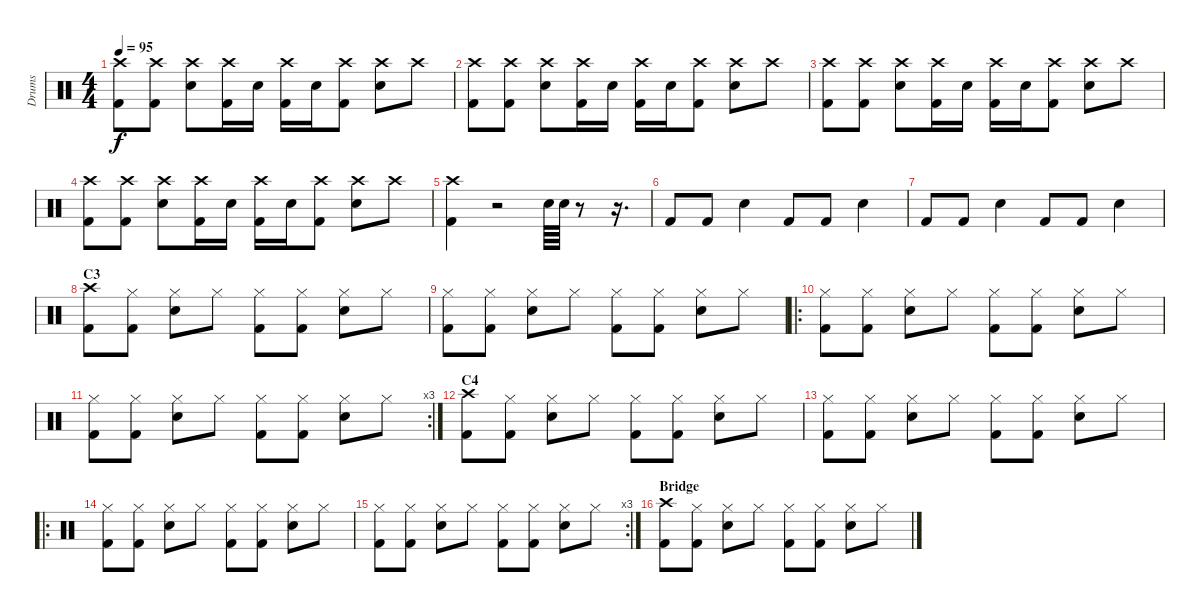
\track ("Drums" "Drums") {instrument percussion}
\staff {score}
\articulation defaults
\ts (4 4)
\tempo 95
\clef neutral
\ks c
("Crash high (hit)" "Kick (hit) 2").8{dy f} ("Crash high (hit)" "Kick (hit) 2").8 ("Crash high (hit)" "Electric Snare (hit)").8 ("Crash high (hit)" "Kick (hit) 2").16 "Electric Snare (hit)".16 ("Crash high (hit)" "Kick (hit) 2").16 "Electric Snare (hit)".16 ("Crash high (hit)" "Kick (hit) 2").8 ("Crash high (hit)" "Electric Snare (hit)").8 "Crash high (hit)".8 |
("Crash high (hit)" "Kick (hit) 2").8 ("Crash high (hit)" "Kick (hit) 2").8 ("Crash high (hit)" "Electric Snare (hit)").8 ("Crash high (hit)" "Kick (hit) 2").16 "Electric Snare (hit)".16 ("Crash high (hit)" "Kick (hit) 2").16 "Electric Snare (hit)".16 ("Crash high (hit)" "Kick (hit) 2").8 ("Crash high (hit)" "Electric Snare (hit)").8 "Crash high (hit)".8 |
("Crash high (hit)" "Kick (hit) 2").8 ("Crash high (hit)" "Kick (hit) 2").8 ("Crash high (hit)" "Electric Snare (hit)").8 ("Crash high (hit)" "Kick (hit) 2").16 "Electric Snare (hit)".16 ("Crash high (hit)" "Kick (hit) 2").16 "Electric Snare (hit)".16 ("Crash high (hit)" "Kick (hit) 2").8 ("Crash high (hit)" "Electric Snare (hit)").8 "Crash high (hit)".8 |
("Crash high (hit)" "Kick (hit) 2").8 ("Crash high (hit)" "Kick (hit) 2").8 ("Crash high (hit)" "Electric Snare (hit)").8 ("Crash high (hit)" "Kick (hit) 2").16 "Electric Snare (hit)".16 ("Crash high (hit)" "Kick (hit) 2").16 "Electric Snare (hit)".16 ("Crash high (hit)" "Kick (hit) 2").8 ("Crash high (hit)" "Electric Snare (hit)").8 "Crash high (hit)".8 |
("Crash high (hit)" "Kick (hit) 2").4 r.2 "Electric Snare (hit)".64 "Electric Snare (hit)".64 r.8 r.16{d} |
"Kick (hit) 2".8 "Kick (hit) 2".8 "Electric Snare (hit)".4 "Kick (hit) 2".8 "Kick (hit) 2".8 "Electric Snare (hit)".4 |
"Kick (hit) 2".8 "Kick (hit) 2".8 "Electric Snare (hit)".4 "Kick (hit) 2".8 "Kick (hit) 2".8 "Electric Snare (hit)".4 |
\section ("" "C3")
("Crash high (hit)" "Kick (hit) 2").8{volume 15} ("Hi-Hat (closed)" "Kick (hit) 2").8 ("Hi-Hat (closed)" "Electric Snare (hit)").8 "Hi-Hat (closed)".8 ("Hi-Hat (closed)" "Kick (hit) 2").8 ("Hi-Hat (closed)" "Kick (hit) 2").8 ("Hi-Hat (closed)" "Electric Snare (hit)").8 "Hi-Hat (closed)".8 |
("Hi-Hat (closed)" "Kick (hit) 2").8 ("Hi-Hat (closed)" "Kick (hit) 2").8 ("Hi-Hat (closed)" "Electric Snare (hit)").8 "Hi-Hat (closed)".8 ("Hi-Hat (closed)" "Kick (hit) 2").8 ("Hi-Hat (closed)" "Kick (hit) 2").8 ("Hi-Hat (closed)" "Electric Snare (hit)").8 "Hi-Hat (closed)".8 |
\ro
("Hi-Hat (closed)" "Kick (hit) 2").8 ("Hi-Hat (closed)" "Kick (hit) 2").8 ("Hi-Hat (closed)" "Electric Snare (hit)").8 "Hi-Hat (closed)".8 ("Hi-Hat (closed)" "Kick (hit) 2").8 ("Hi-Hat (closed)" "Kick (hit) 2").8 ("Hi-Hat (closed)" "Electric Snare (hit)").8 "Hi-Hat (closed)".8 |
\rc 3
("Hi-Hat (closed)" "Kick (hit) 2").8 ("Hi-Hat (closed)" "Kick (hit) 2").8 ("Hi-Hat (closed)" "Electric Snare (hit)").8 "Hi-Hat (closed)".8 ("Hi-Hat (closed)" "Kick (hit) 2").8 ("Hi-Hat (closed)" "Kick (hit) 2").8 ("Hi-Hat (closed)" "Electric Snare (hit)").8 "Hi-Hat (closed)".8 |
\section ("" "C4")
("Crash high (hit)" "Kick (hit) 2").8 ("Hi-Hat (closed)" "Kick (hit) 2").8 ("Hi-Hat (closed)" "Electric Snare (hit)").8 "Hi-Hat (closed)".8 ("Hi-Hat (closed)" "Kick (hit) 2").8 ("Hi-Hat (closed)" "Kick (hit) 2").8 ("Hi-Hat (closed)" "Electric Snare (hit)").8 "Hi-Hat (closed)".8 |
("Hi-Hat (closed)" "Kick (hit) 2").8 ("Hi-Hat (closed)" "Kick (hit) 2").8 ("Hi-Hat (closed)" "Electric Snare (hit)").8 "Hi-Hat (closed)".8 ("Hi-Hat (closed)" "Kick (hit) 2").8 ("Hi-Hat (closed)" "Kick (hit) 2").8 ("Hi-Hat (closed)" "Electric Snare (hit)").8 "Hi-Hat (closed)".8 |
\ro
("Hi-Hat (closed)" "Kick (hit) 2").8 ("Hi-Hat (closed)" "Kick (hit) 2").8 ("Hi-Hat (closed)" "Electric Snare (hit)").8 "Hi-Hat (closed)".8 ("Hi-Hat (closed)" "Kick (hit) 2").8 ("Hi-Hat (closed)" "Kick (hit) 2").8 ("Hi-Hat (closed)" "Electric Snare (hit)").8 "Hi-Hat (closed)".8 |
\rc 3
("Hi-Hat (closed)" "Kick (hit) 2").8 ("Hi-Hat (closed)" "Kick (hit) 2").8 ("Hi-Hat (closed)" "Electric Snare (hit)").8 "Hi-Hat (closed)".8 ("Hi-Hat (closed)" "Kick (hit) 2").8 ("Hi-Hat (closed)" "Kick (hit) 2").8 ("Hi-Hat (closed)" "Electric Snare (hit)").8 "Hi-Hat (closed)".8 |
\section ("" "Bridge")
("Crash high (hit)" "Kick (hit) 2").8 ("Hi-Hat (closed)" "Kick (hit) 2").8 ("Hi-Hat (closed)" "Electric Snare (hit)").8 "Hi-Hat (closed)".8 ("Hi-Hat (closed)" "Kick (hit) 2").8 ("Hi-Hat (closed)" "Kick (hit) 2").8 ("Hi-Hat (closed)" "Electric Snare (hit)").8 "Hi-Hat (closed)".8
